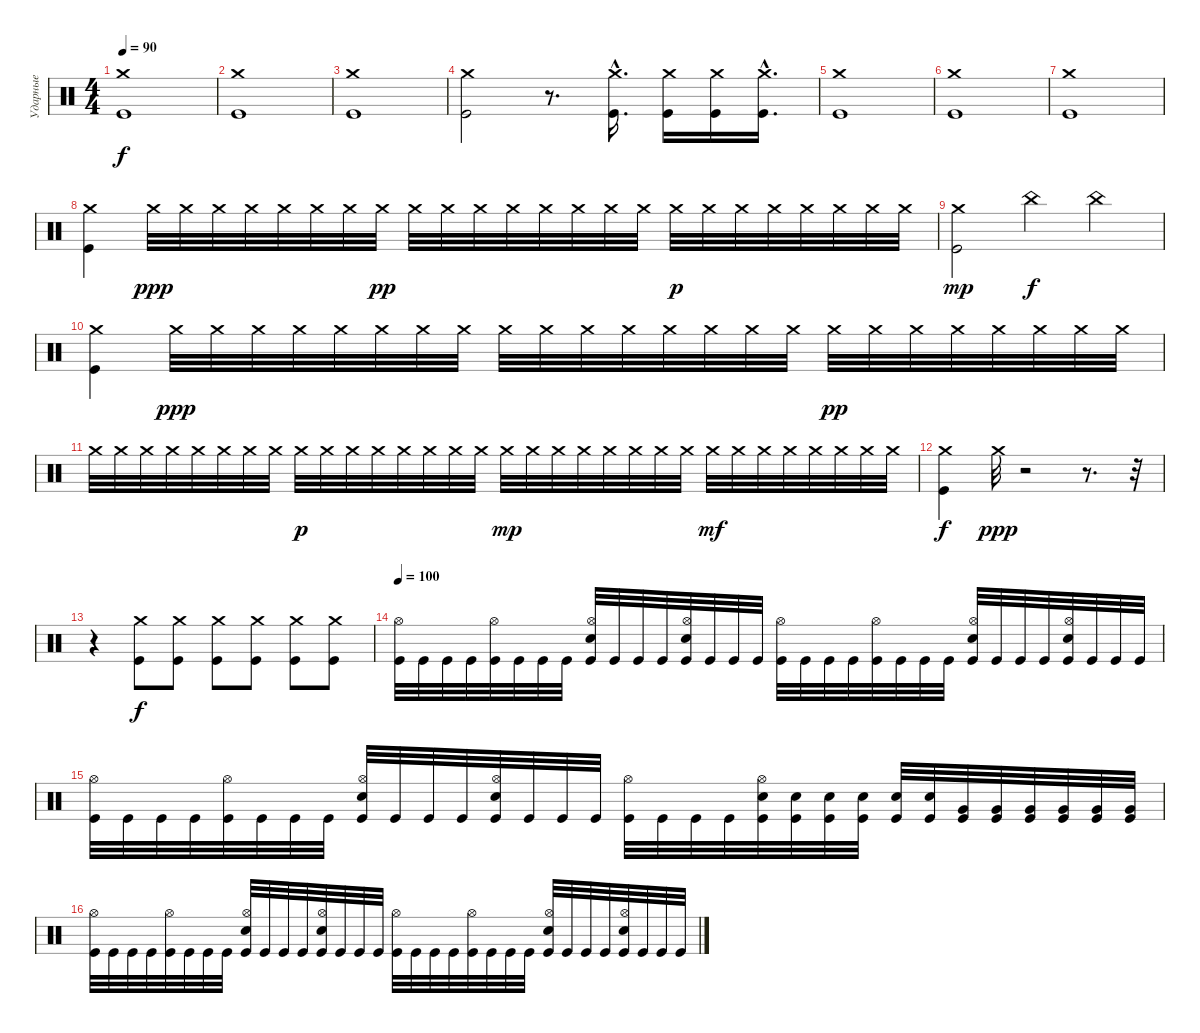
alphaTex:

\track ("Ударные" "Ударные") {instrument percussion}
\staff {score}
\articulation defaults
\ts (4 4)
\tempo 90
\clef neutral
\ks c
("Crash medium (hit)" "Kick (hit)").1{dy f} |
("Crash medium (hit)" "Kick (hit)").1 |
("Crash medium (hit)" "Kick (hit)").1 |
("Crash medium (hit)" "Kick (hit)").2 r.8{d} ("Crash medium (hit)"{hac} "Kick (hit)"{hac}).16{d} ("Crash medium (hit)" "Kick (hit)").16 ("Crash medium (hit)" "Kick (hit)").16 ("Crash medium (hit)"{hac} "Kick (hit)"{hac}).16{d} |
("Crash medium (hit)" "Kick (hit)").1 |
("Crash medium (hit)" "Kick (hit)").1 |
("Crash medium (hit)" "Kick (hit)").1 |
("Crash medium (hit)" "Kick (hit)").4 "Crash medium (hit)".32{dy ppp} "Crash medium (hit)".32 "Crash medium (hit)".32 "Crash medium (hit)".32 "Crash medium (hit)".32 "Crash medium (hit)".32 "Crash medium (hit)".32 "Crash medium (hit)".32{dy pp} "Crash medium (hit)".32 "Crash medium (hit)".32 "Crash medium (hit)".32 "Crash medium (hit)".32 "Crash medium (hit)".32 "Crash medium (hit)".32 "Crash medium (hit)".32 "Crash medium (hit)".32 "Crash medium (hit)".32{dy p} "Crash medium (hit)".32 "Crash medium (hit)".32 "Crash medium (hit)".32 "Crash medium (hit)".32 "Crash medium (hit)".32 "Crash medium (hit)".32 "Crash medium (hit)".32 |
("Crash medium (hit)" "Kick (hit)").2{dy mp} "China (hit)".4{dy f} "China (hit)".4 |
("Crash medium (hit)" "Kick (hit)").4 "Crash medium (hit)".32{dy ppp} "Crash medium (hit)".32 "Crash medium (hit)".32 "Crash medium (hit)".32 "Crash medium (hit)".32 "Crash medium (hit)".32 "Crash medium (hit)".32 "Crash medium (hit)".32 "Crash medium (hit)".32 "Crash medium (hit)".32 "Crash medium (hit)".32 "Crash medium (hit)".32 "Crash medium (hit)".32 "Crash medium (hit)".32 "Crash medium (hit)".32 "Crash medium (hit)".32 "Crash medium (hit)".32{dy pp} "Crash medium (hit)".32 "Crash medium (hit)".32 "Crash medium (hit)".32 "Crash medium (hit)".32 "Crash medium (hit)".32 "Crash medium (hit)".32 "Crash medium (hit)".32 |
"Crash medium (hit)".32 "Crash medium (hit)".32 "Crash medium (hit)".32 "Crash medium (hit)".32 "Crash medium (hit)".32 "Crash medium (hit)".32 "Crash medium (hit)".32 "Crash medium (hit)".32 "Crash medium (hit)".32{dy p} "Crash medium (hit)".32 "Crash medium (hit)".32 "Crash medium (hit)".32 "Crash medium (hit)".32 "Crash medium (hit)".32 "Crash medium (hit)".32 "Crash medium (hit)".32 "Crash medium (hit)".32{dy mp} "Crash medium (hit)".32 "Crash medium (hit)".32 "Crash medium (hit)".32 "Crash medium (hit)".32 "Crash medium (hit)".32 "Crash medium (hit)".32 "Crash medium (hit)".32 "Crash medium (hit)".32{dy mf} "Crash medium (hit)".32 "Crash medium (hit)".32 "Crash medium (hit)".32 "Crash medium (hit)".32 "Crash medium (hit)".32 "Crash medium (hit)".32 "Crash medium (hit)".32 |
("Crash medium (hit)" "Kick (hit)").4{dy f} "Crash medium (hit)".32{dy ppp} r.2 r.8{d} r.32 |
r.4 ("Crash medium (hit)" "Kick (hit)").8{dy f} ("Crash medium (hit)" "Kick (hit)").8 ("Crash medium (hit)" "Kick (hit)").8 ("Crash medium (hit)" "Kick (hit)").8 ("Crash medium (hit)" "Kick (hit)").8 ("Crash medium (hit)" "Kick (hit)").8 |
\tempo 100
("Hi-Hat (open)" "Kick (hit)").32 "Kick (hit)".32 "Kick (hit)".32 "Kick (hit)".32 ("Hi-Hat (open)" "Kick (hit)").32 "Kick (hit)".32 "Kick (hit)".32 "Kick (hit)".32 ("Hi-Hat (open)" "Snare (hit) 2" "Kick (hit)").32 "Kick (hit)".32 "Kick (hit)".32 "Kick (hit)".32 ("Hi-Hat (open)" "Snare (hit) 2" "Kick (hit)").32 "Kick (hit)".32 "Kick (hit)".32 "Kick (hit)".32 ("Hi-Hat (open)" "Kick (hit)").32 "Kick (hit)".32 "Kick (hit)".32 "Kick (hit)".32 ("Hi-Hat (open)" "Kick (hit)").32 "Kick (hit)".32 "Kick (hit)".32 "Kick (hit)".32 ("Hi-Hat (open)" "Snare (hit) 2" "Kick (hit)").32 "Kick (hit)".32 "Kick (hit)".32 "Kick (hit)".32 ("Hi-Hat (open)" "Snare (hit) 2" "Kick (hit)").32 "Kick (hit)".32 "Kick (hit)".32 "Kick (hit)".32 |
("Hi-Hat (open)" "Kick (hit)").32 "Kick (hit)".32 "Kick (hit)".32 "Kick (hit)".32 ("Hi-Hat (open)" "Kick (hit)").32 "Kick (hit)".32 "Kick (hit)".32 "Kick (hit)".32 ("Hi-Hat (open)" "Snare (hit) 2" "Kick (hit)").32 "Kick (hit)".32 "Kick (hit)".32 "Kick (hit)".32 ("Hi-Hat (open)" "Snare (hit) 2" "Kick (hit)").32 "Kick (hit)".32 "Kick (hit)".32 "Kick (hit)".32 ("Hi-Hat (open)" "Kick (hit)").32 "Kick (hit)".32 "Kick (hit)".32 "Kick (hit)".32 ("Hi-Hat (open)" "Snare (hit) 2" "Kick (hit)").32 ("Snare (hit) 2" "Kick (hit)").32 ("Snare (hit) 2" "Kick (hit)").32 ("Snare (hit) 2" "Kick (hit)").32 ("Snare (hit) 2" "Kick (hit)").32 ("Snare (hit) 2" "Kick (hit)").32 ("Very Low Tom (hit)" "Kick (hit)").32 ("Very Low Tom (hit)" "Kick (hit)").32 ("Very Low Tom (hit)" "Kick (hit)").32 ("Very Low Tom (hit)" "Kick (hit)").32 ("Very Low Tom (hit)" "Kick (hit)").32 ("Very Low Tom (hit)" "Kick (hit)").32 |
("Hi-Hat (open)" "Kick (hit)").32 "Kick (hit)".32 "Kick (hit)".32 "Kick (hit)".32 ("Hi-Hat (open)" "Kick (hit)").32 "Kick (hit)".32 "Kick (hit)".32 "Kick (hit)".32 ("Hi-Hat (open)" "Snare (hit) 2" "Kick (hit)").32 "Kick (hit)".32 "Kick (hit)".32 "Kick (hit)".32 ("Hi-Hat (open)" "Snare (hit) 2" "Kick (hit)").32 "Kick (hit)".32 "Kick (hit)".32 "Kick (hit)".32 ("Hi-Hat (open)" "Kick (hit)").32 "Kick (hit)".32 "Kick (hit)".32 "Kick (hit)".32 ("Hi-Hat (open)" "Kick (hit)").32 "Kick (hit)".32 "Kick (hit)".32 "Kick (hit)".32 ("Hi-Hat (open)" "Snare (hit) 2" "Kick (hit)").32 "Kick (hit)".32 "Kick (hit)".32 "Kick (hit)".32 ("Hi-Hat (open)" "Snare (hit) 2" "Kick (hit)").32 "Kick (hit)".32 "Kick (hit)".32 "Kick (hit)".32
